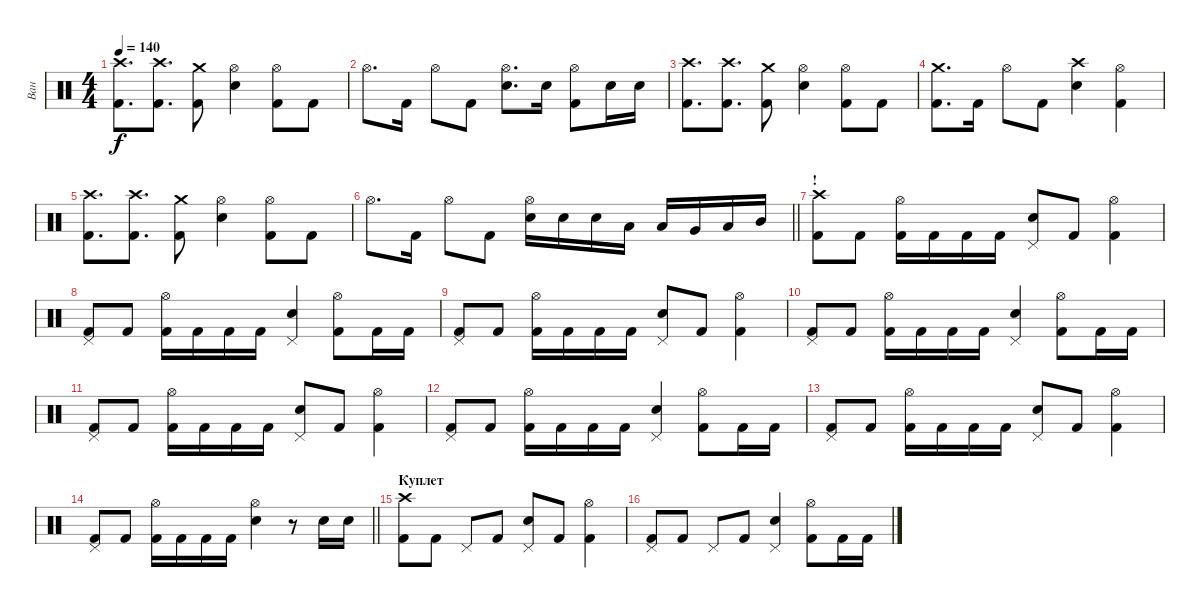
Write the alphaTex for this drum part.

\track ("Ван" "Ван") {instrument percussion}
\staff {score}
\articulation defaults
\ts (4 4)
\tempo 140
\clef neutral
\ks c
("Crash high (hit)" "Kick (hit) 2").8{d dy f} ("Crash high (hit)" "Kick (hit) 2").8{d} ("Crash medium (hit)" "Kick (hit) 2").8 ("Hi-Hat (open)" "Snare (hit) 2").4 ("Hi-Hat (open)" "Kick (hit) 2").8 "Kick (hit) 2".8 |
"Hi-Hat (open)".8{d} "Kick (hit) 2".16 "Hi-Hat (open)".8 "Kick (hit) 2".8 ("Hi-Hat (open)" "Snare (hit) 2").8{d} "Snare (hit) 2".16 ("Hi-Hat (open)" "Kick (hit) 2").8 "Snare (hit) 2".16 "Snare (hit) 2".16 |
("Crash high (hit)" "Kick (hit) 2").8{d} ("Crash high (hit)" "Kick (hit) 2").8{d} ("Crash medium (hit)" "Kick (hit) 2").8 ("Hi-Hat (open)" "Snare (hit) 2").4 ("Hi-Hat (open)" "Kick (hit) 2").8 "Kick (hit) 2".8 |
("Crash medium (hit)" "Kick (hit) 2").8{d} "Kick (hit) 2".16 "Hi-Hat (open)".8 "Kick (hit) 2".8 ("Crash high (hit)" "Snare (hit) 2").4 ("Hi-Hat (open)" "Kick (hit) 2").4 |
("Crash high (hit)" "Kick (hit) 2").8{d} ("Crash high (hit)" "Kick (hit) 2").8{d} ("Crash medium (hit)" "Kick (hit) 2").8 ("Hi-Hat (open)" "Snare (hit) 2").4 ("Hi-Hat (open)" "Kick (hit) 2").8 "Kick (hit) 2".8 |
\barLineRight lightlight "Hi-Hat (open)".8{d} "Kick (hit) 2".16 "Hi-Hat (open)".8 "Kick (hit) 2".8
("Hi-Hat (open)" "Snare (hit) 2").16 "Snare (hit) 2".16 "Snare (hit) 2".16 "Low Floor Tom (hit)".16 "Low Floor Tom (hit)".16 "Very Low Tom (hit)".16 "Low Tom (hit)".16 "Mid Tom (hit)".16 |
\section ("" "!")
("Crash high (hit)" "Kick (hit) 2").8 "Kick (hit) 2".8 ("Hi-Hat (open)" "Kick (hit) 2").16 "Kick (hit) 2".16 "Kick (hit) 2".16 "Kick (hit) 2".16 ("Pedal Hi-Hat (hit)" "Snare (hit) 2").8 "Kick (hit) 2".8 ("Hi-Hat (open)" "Kick (hit) 2").4 |
("Pedal Hi-Hat (hit)" "Kick (hit) 2").8 "Kick (hit) 2".8 ("Hi-Hat (open)" "Kick (hit) 2").16 "Kick (hit) 2".16 "Kick (hit) 2".16 "Kick (hit) 2".16 ("Pedal Hi-Hat (hit)" "Snare (hit) 2").4 ("Hi-Hat (open)" "Kick (hit) 2").8 "Kick (hit) 2".16 "Kick (hit) 2".16 |
("Pedal Hi-Hat (hit)" "Kick (hit) 2").8 "Kick (hit) 2".8 ("Hi-Hat (open)" "Kick (hit) 2").16 "Kick (hit) 2".16 "Kick (hit) 2".16 "Kick (hit) 2".16 ("Pedal Hi-Hat (hit)" "Snare (hit) 2").8 "Kick (hit) 2".8 ("Hi-Hat (open)" "Kick (hit) 2").4 |
("Pedal Hi-Hat (hit)" "Kick (hit) 2").8 "Kick (hit) 2".8 ("Hi-Hat (open)" "Kick (hit) 2").16 "Kick (hit) 2".16 "Kick (hit) 2".16 "Kick (hit) 2".16 ("Pedal Hi-Hat (hit)" "Snare (hit) 2").4 ("Hi-Hat (open)" "Kick (hit) 2").8 "Kick (hit) 2".16 "Kick (hit) 2".16 |
("Pedal Hi-Hat (hit)" "Kick (hit) 2").8 "Kick (hit) 2".8 ("Hi-Hat (open)" "Kick (hit) 2").16 "Kick (hit) 2".16 "Kick (hit) 2".16 "Kick (hit) 2".16 ("Pedal Hi-Hat (hit)" "Snare (hit) 2").8 "Kick (hit) 2".8 ("Hi-Hat (open)" "Kick (hit) 2").4 |
("Pedal Hi-Hat (hit)" "Kick (hit) 2").8 "Kick (hit) 2".8 ("Hi-Hat (open)" "Kick (hit) 2").16 "Kick (hit) 2".16 "Kick (hit) 2".16 "Kick (hit) 2".16 ("Pedal Hi-Hat (hit)" "Snare (hit) 2").4 ("Hi-Hat (open)" "Kick (hit) 2").8 "Kick (hit) 2".16 "Kick (hit) 2".16 |
("Pedal Hi-Hat (hit)" "Kick (hit) 2").8 "Kick (hit) 2".8 ("Hi-Hat (open)" "Kick (hit) 2").16 "Kick (hit) 2".16 "Kick (hit) 2".16 "Kick (hit) 2".16 ("Pedal Hi-Hat (hit)" "Snare (hit) 2").8 "Kick (hit) 2".8 ("Hi-Hat (open)" "Kick (hit) 2").4 |
\barLineRight lightlight
("Pedal Hi-Hat (hit)" "Kick (hit) 2").8 "Kick (hit) 2".8 ("Hi-Hat (open)" "Kick (hit) 2").16 "Kick (hit) 2".16 "Kick (hit) 2".16 "Kick (hit) 2".16 ("Hi-Hat (open)" "Snare (hit) 2").4 r.8 "Snare (hit) 2".16 "Snare (hit) 2".16 |
\section ("" "Куплет")
("Crash high (hit)" "Kick (hit) 2").8 "Kick (hit) 2".8 "Pedal Hi-Hat (hit)".8 "Kick (hit) 2".8 ("Pedal Hi-Hat (hit)" "Snare (hit) 2").8 "Kick (hit) 2".8 ("Hi-Hat (open)" "Kick (hit) 2").4 |
("Pedal Hi-Hat (hit)" "Kick (hit) 2").8 "Kick (hit) 2".8 "Pedal Hi-Hat (hit)".8 "Kick (hit) 2".8 ("Pedal Hi-Hat (hit)" "Snare (hit) 2").4 ("Hi-Hat (open)" "Kick (hit) 2").8 "Kick (hit) 2".16 "Kick (hit) 2".16
